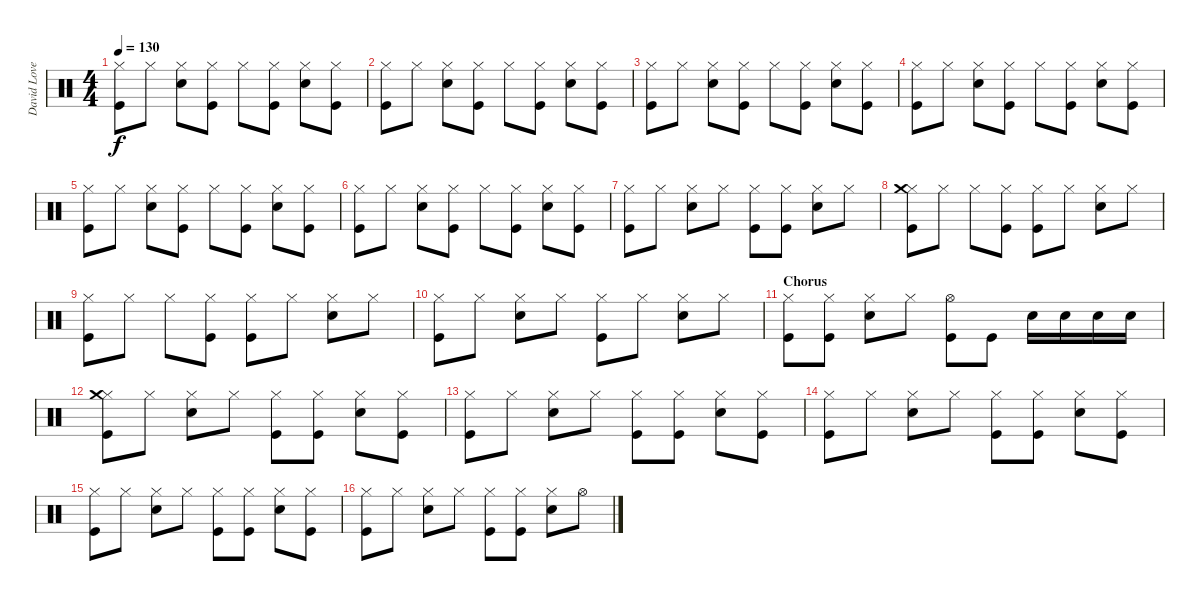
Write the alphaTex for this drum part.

\track ("David Lovering" "David Love") {instrument percussion}
\staff {score}
\articulation defaults
\ts (4 4)
\tempo 130
\clef neutral
\ks c
("Hi-Hat (closed)" "Kick (hit)").8{dy f} "Hi-Hat (closed)".8 ("Hi-Hat (closed)" "Snare (hit) 2").8 ("Hi-Hat (closed)" "Kick (hit)").8 "Hi-Hat (closed)".8 ("Hi-Hat (closed)" "Kick (hit)").8 ("Hi-Hat (closed)" "Snare (hit) 2").8 ("Hi-Hat (closed)" "Kick (hit)").8 |
("Hi-Hat (closed)" "Kick (hit)").8 "Hi-Hat (closed)".8 ("Hi-Hat (closed)" "Snare (hit) 2").8 ("Hi-Hat (closed)" "Kick (hit)").8 "Hi-Hat (closed)".8 ("Hi-Hat (closed)" "Kick (hit)").8 ("Hi-Hat (closed)" "Snare (hit) 2").8 ("Hi-Hat (closed)" "Kick (hit)").8 |
("Hi-Hat (closed)" "Kick (hit)").8 "Hi-Hat (closed)".8 ("Hi-Hat (closed)" "Snare (hit) 2").8 ("Hi-Hat (closed)" "Kick (hit)").8 "Hi-Hat (closed)".8 ("Hi-Hat (closed)" "Kick (hit)").8 ("Hi-Hat (closed)" "Snare (hit) 2").8 ("Hi-Hat (closed)" "Kick (hit)").8 |
("Hi-Hat (closed)" "Kick (hit)").8 "Hi-Hat (closed)".8 ("Hi-Hat (closed)" "Snare (hit) 2").8 ("Hi-Hat (closed)" "Kick (hit)").8 "Hi-Hat (closed)".8 ("Hi-Hat (closed)" "Kick (hit)").8 ("Hi-Hat (closed)" "Snare (hit) 2").8 ("Hi-Hat (closed)" "Kick (hit)").8 |
("Hi-Hat (closed)" "Kick (hit)").8 "Hi-Hat (closed)".8 ("Hi-Hat (closed)" "Snare (hit) 2").8 ("Hi-Hat (closed)" "Kick (hit)").8 "Hi-Hat (closed)".8 ("Hi-Hat (closed)" "Kick (hit)").8 ("Hi-Hat (closed)" "Snare (hit) 2").8 ("Hi-Hat (closed)" "Kick (hit)").8 |
("Hi-Hat (closed)" "Kick (hit)").8 "Hi-Hat (closed)".8 ("Hi-Hat (closed)" "Snare (hit) 2").8 ("Hi-Hat (closed)" "Kick (hit)").8 "Hi-Hat (closed)".8 ("Hi-Hat (closed)" "Kick (hit)").8 ("Hi-Hat (closed)" "Snare (hit) 2").8 ("Hi-Hat (closed)" "Kick (hit)").8 |
("Hi-Hat (closed)" "Kick (hit)").8 "Hi-Hat (closed)".8 ("Hi-Hat (closed)" "Snare (hit) 2").8 "Hi-Hat (closed)".8 ("Hi-Hat (closed)" "Kick (hit)").8 ("Hi-Hat (closed)" "Kick (hit)").8 ("Hi-Hat (closed)" "Snare (hit) 2").8 "Hi-Hat (closed)".8 |
\section ("" "")
("Hi-Hat (closed)" "Crash medium (hit)" "Kick (hit)").8 "Hi-Hat (closed)".8 "Hi-Hat (closed)".8 ("Hi-Hat (closed)" "Kick (hit)").8 ("Hi-Hat (closed)" "Kick (hit)").8 "Hi-Hat (closed)".8 ("Hi-Hat (closed)" "Snare (hit) 2").8 "Hi-Hat (closed)".8 |
("Hi-Hat (closed)" "Kick (hit)").8 "Hi-Hat (closed)".8 "Hi-Hat (closed)".8 ("Hi-Hat (closed)" "Kick (hit)").8 ("Hi-Hat (closed)" "Kick (hit)").8 "Hi-Hat (closed)".8 ("Hi-Hat (closed)" "Snare (hit) 2").8 "Hi-Hat (closed)".8 |
("Hi-Hat (closed)" "Kick (hit)").8 "Hi-Hat (closed)".8 ("Hi-Hat (closed)" "Snare (hit) 2").8 "Hi-Hat (closed)".8 ("Hi-Hat (closed)" "Kick (hit)").8 "Hi-Hat (closed)".8 ("Hi-Hat (closed)" "Snare (hit) 2").8 "Hi-Hat (closed)".8 |
\section ("" "Chorus")
("Hi-Hat (closed)" "Kick (hit)").8 ("Hi-Hat (closed)" "Kick (hit)").8 ("Hi-Hat (closed)" "Snare (hit) 2").8 "Hi-Hat (closed)".8 ("Hi-Hat (open)" "Kick (hit)").8 "Kick (hit)".8 "Snare (hit) 2".16 "Snare (hit) 2".16 "Snare (hit) 2".16 "Snare (hit) 2".16 |
("Hi-Hat (closed)" "Crash medium (hit)" "Kick (hit)").8 "Hi-Hat (closed)".8 ("Hi-Hat (closed)" "Snare (hit) 2").8 "Hi-Hat (closed)".8 ("Hi-Hat (closed)" "Kick (hit)").8 ("Hi-Hat (closed)" "Kick (hit)").8 ("Hi-Hat (closed)" "Snare (hit) 2").8 ("Hi-Hat (closed)" "Kick (hit)").8 |
("Hi-Hat (closed)" "Kick (hit)").8 "Hi-Hat (closed)".8 ("Hi-Hat (closed)" "Snare (hit) 2").8 "Hi-Hat (closed)".8 ("Hi-Hat (closed)" "Kick (hit)").8 ("Hi-Hat (closed)" "Kick (hit)").8 ("Hi-Hat (closed)" "Snare (hit) 2").8 ("Hi-Hat (closed)" "Kick (hit)").8 |
("Hi-Hat (closed)" "Kick (hit)").8 "Hi-Hat (closed)".8 ("Hi-Hat (closed)" "Snare (hit) 2").8 "Hi-Hat (closed)".8 ("Hi-Hat (closed)" "Kick (hit)").8 ("Hi-Hat (closed)" "Kick (hit)").8 ("Hi-Hat (closed)" "Snare (hit) 2").8 ("Hi-Hat (closed)" "Kick (hit)").8 |
("Hi-Hat (closed)" "Kick (hit)").8 "Hi-Hat (closed)".8 ("Hi-Hat (closed)" "Snare (hit) 2").8 "Hi-Hat (closed)".8 ("Hi-Hat (closed)" "Kick (hit)").8 ("Hi-Hat (closed)" "Kick (hit)").8 ("Hi-Hat (closed)" "Snare (hit) 2").8 ("Hi-Hat (closed)" "Kick (hit)").8 |
("Hi-Hat (closed)" "Kick (hit)").8 "Hi-Hat (closed)".8 ("Hi-Hat (closed)" "Snare (hit) 2").8 "Hi-Hat (closed)".8 ("Hi-Hat (closed)" "Kick (hit)").8 ("Hi-Hat (closed)" "Kick (hit)").8 ("Hi-Hat (closed)" "Snare (hit) 2").8 "Hi-Hat (open)".8
